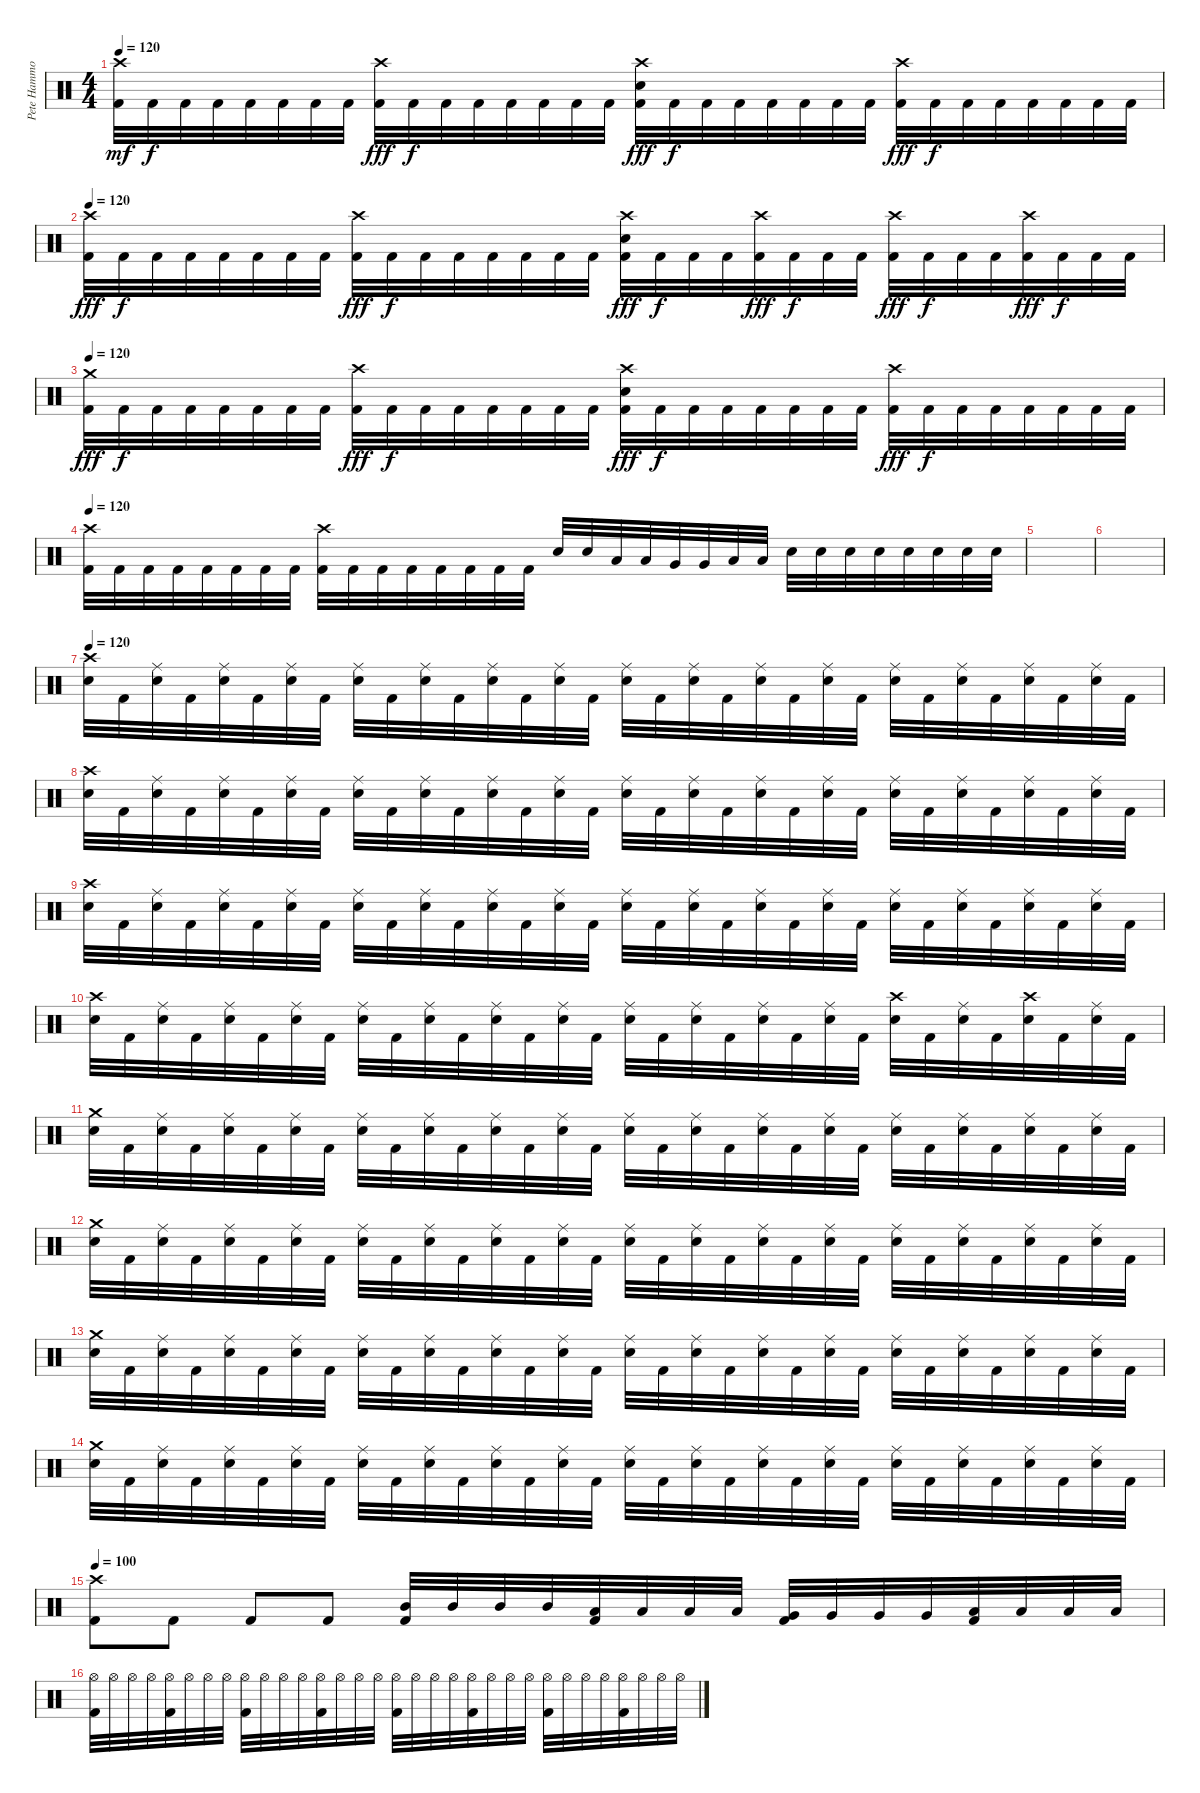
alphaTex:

\track ("Pete Hammoura" "Pete Hammo") {instrument percussion}
\staff {score}
\articulation defaults
\ts (4 4)
\tempo 120
\clef neutral
\ks c
("Crash high (hit)" "Kick (hit) 2").32{dy mf} "Kick (hit) 2".32{dy f} "Kick (hit) 2".32 "Kick (hit) 2".32 "Kick (hit) 2".32 "Kick (hit) 2".32 "Kick (hit) 2".32 "Kick (hit) 2".32 ("Crash high (hit)" "Kick (hit) 2").32{dy fff} "Kick (hit) 2".32{dy f} "Kick (hit) 2".32 "Kick (hit) 2".32 "Kick (hit) 2".32 "Kick (hit) 2".32 "Kick (hit) 2".32 "Kick (hit) 2".32 ("Crash high (hit)" "Electric Snare (hit)" "Kick (hit) 2").32{dy fff} "Kick (hit) 2".32{dy f} "Kick (hit) 2".32 "Kick (hit) 2".32 "Kick (hit) 2".32 "Kick (hit) 2".32 "Kick (hit) 2".32 "Kick (hit) 2".32 ("Crash high (hit)" "Kick (hit) 2").32{dy fff} "Kick (hit) 2".32{dy f} "Kick (hit) 2".32 "Kick (hit) 2".32 "Kick (hit) 2".32 "Kick (hit) 2".32 "Kick (hit) 2".32 "Kick (hit) 2".32 |
\tempo 120
("Crash high (hit)" "Kick (hit) 2").32{dy fff} "Kick (hit) 2".32{dy f} "Kick (hit) 2".32 "Kick (hit) 2".32 "Kick (hit) 2".32 "Kick (hit) 2".32 "Kick (hit) 2".32 "Kick (hit) 2".32 ("Crash high (hit)" "Kick (hit) 2").32{dy fff} "Kick (hit) 2".32{dy f} "Kick (hit) 2".32 "Kick (hit) 2".32 "Kick (hit) 2".32 "Kick (hit) 2".32 "Kick (hit) 2".32 "Kick (hit) 2".32 ("Crash high (hit)" "Electric Snare (hit)" "Kick (hit) 2").32{dy fff} "Kick (hit) 2".32{dy f} "Kick (hit) 2".32 "Kick (hit) 2".32 ("Crash high (hit)" "Kick (hit) 2").32{dy fff} "Kick (hit) 2".32{dy f} "Kick (hit) 2".32 "Kick (hit) 2".32 ("Crash high (hit)" "Kick (hit) 2").32{dy fff} "Kick (hit) 2".32{dy f} "Kick (hit) 2".32 "Kick (hit) 2".32 ("Crash high (hit)" "Kick (hit) 2").32{dy fff} "Kick (hit) 2".32{dy f} "Kick (hit) 2".32 "Kick (hit) 2".32 |
\tempo 120
("Crash medium (hit)" "Kick (hit) 2").32{dy fff} "Kick (hit) 2".32{dy f} "Kick (hit) 2".32 "Kick (hit) 2".32 "Kick (hit) 2".32 "Kick (hit) 2".32 "Kick (hit) 2".32 "Kick (hit) 2".32 ("Crash high (hit)" "Kick (hit) 2").32{dy fff} "Kick (hit) 2".32{dy f} "Kick (hit) 2".32 "Kick (hit) 2".32 "Kick (hit) 2".32 "Kick (hit) 2".32 "Kick (hit) 2".32 "Kick (hit) 2".32 ("Crash high (hit)" "Electric Snare (hit)" "Kick (hit) 2").32{dy fff} "Kick (hit) 2".32{dy f} "Kick (hit) 2".32 "Kick (hit) 2".32 "Kick (hit) 2".32 "Kick (hit) 2".32 "Kick (hit) 2".32 "Kick (hit) 2".32 ("Crash high (hit)" "Kick (hit) 2").32{dy fff} "Kick (hit) 2".32{dy f} "Kick (hit) 2".32 "Kick (hit) 2".32 "Kick (hit) 2".32 "Kick (hit) 2".32 "Kick (hit) 2".32 "Kick (hit) 2".32 |
\tempo 120
("Crash high (hit)" "Kick (hit) 2").32 "Kick (hit) 2".32 "Kick (hit) 2".32 "Kick (hit) 2".32 "Kick (hit) 2".32 "Kick (hit) 2".32 "Kick (hit) 2".32 "Kick (hit) 2".32 ("Crash high (hit)" "Kick (hit) 2").32 "Kick (hit) 2".32 "Kick (hit) 2".32 "Kick (hit) 2".32 "Kick (hit) 2".32 "Kick (hit) 2".32 "Kick (hit) 2".32 "Kick (hit) 2".32 "Electric Snare (hit)".32 "Electric Snare (hit)".32 "Low Tom (hit)".32 "Low Tom (hit)".32 "Very Low Tom (hit)".32 "Very Low Tom (hit)".32 "Low Floor Tom (hit)".32 "Low Floor Tom (hit)".32 "Electric Snare (hit)".32 "Electric Snare (hit)".32 "Electric Snare (hit)".32 "Electric Snare (hit)".32 "Electric Snare (hit)".32 "Electric Snare (hit)".32 "Electric Snare (hit)".32 "Electric Snare (hit)".32 |
|
|
\tempo 120
("Crash high (hit)" "Electric Snare (hit)").32 "Kick (hit) 2".32 ("Ride (middle)" "Electric Snare (hit)").32 "Kick (hit) 2".32 ("Ride (middle)" "Electric Snare (hit)").32 "Kick (hit) 2".32 ("Ride (middle)" "Electric Snare (hit)").32 "Kick (hit) 2".32 ("Ride (middle)" "Electric Snare (hit)").32 "Kick (hit) 2".32 ("Ride (middle)" "Electric Snare (hit)").32 "Kick (hit) 2".32 ("Ride (middle)" "Electric Snare (hit)").32 "Kick (hit) 2".32 ("Ride (middle)" "Electric Snare (hit)").32 "Kick (hit) 2".32 ("Ride (middle)" "Electric Snare (hit)").32 "Kick (hit) 2".32 ("Ride (middle)" "Electric Snare (hit)").32 "Kick (hit) 2".32 ("Ride (middle)" "Electric Snare (hit)").32 "Kick (hit) 2".32 ("Ride (middle)" "Electric Snare (hit)").32 "Kick (hit) 2".32 ("Ride (middle)" "Electric Snare (hit)").32 "Kick (hit) 2".32 ("Ride (middle)" "Electric Snare (hit)").32 "Kick (hit) 2".32 ("Ride (middle)" "Electric Snare (hit)").32 "Kick (hit) 2".32 ("Ride (middle)" "Electric Snare (hit)").32 "Kick (hit) 2".32 |
("Crash high (hit)" "Electric Snare (hit)").32 "Kick (hit) 2".32 ("Ride (middle)" "Electric Snare (hit)").32 "Kick (hit) 2".32 ("Ride (middle)" "Electric Snare (hit)").32 "Kick (hit) 2".32 ("Ride (middle)" "Electric Snare (hit)").32 "Kick (hit) 2".32 ("Ride (middle)" "Electric Snare (hit)").32 "Kick (hit) 2".32 ("Ride (middle)" "Electric Snare (hit)").32 "Kick (hit) 2".32 ("Ride (middle)" "Electric Snare (hit)").32 "Kick (hit) 2".32 ("Ride (middle)" "Electric Snare (hit)").32 "Kick (hit) 2".32 ("Ride (middle)" "Electric Snare (hit)").32 "Kick (hit) 2".32 ("Ride (middle)" "Electric Snare (hit)").32 "Kick (hit) 2".32 ("Ride (middle)" "Electric Snare (hit)").32 "Kick (hit) 2".32 ("Ride (middle)" "Electric Snare (hit)").32 "Kick (hit) 2".32 ("Ride (middle)" "Electric Snare (hit)").32 "Kick (hit) 2".32 ("Ride (middle)" "Electric Snare (hit)").32 "Kick (hit) 2".32 ("Ride (middle)" "Electric Snare (hit)").32 "Kick (hit) 2".32 ("Ride (middle)" "Electric Snare (hit)").32 "Kick (hit) 2".32 |
("Crash high (hit)" "Electric Snare (hit)").32 "Kick (hit) 2".32 ("Ride (middle)" "Electric Snare (hit)").32 "Kick (hit) 2".32 ("Ride (middle)" "Electric Snare (hit)").32 "Kick (hit) 2".32 ("Ride (middle)" "Electric Snare (hit)").32 "Kick (hit) 2".32 ("Ride (middle)" "Electric Snare (hit)").32 "Kick (hit) 2".32 ("Ride (middle)" "Electric Snare (hit)").32 "Kick (hit) 2".32 ("Ride (middle)" "Electric Snare (hit)").32 "Kick (hit) 2".32 ("Ride (middle)" "Electric Snare (hit)").32 "Kick (hit) 2".32 ("Ride (middle)" "Electric Snare (hit)").32 "Kick (hit) 2".32 ("Ride (middle)" "Electric Snare (hit)").32 "Kick (hit) 2".32 ("Ride (middle)" "Electric Snare (hit)").32 "Kick (hit) 2".32 ("Ride (middle)" "Electric Snare (hit)").32 "Kick (hit) 2".32 ("Ride (middle)" "Electric Snare (hit)").32 "Kick (hit) 2".32 ("Ride (middle)" "Electric Snare (hit)").32 "Kick (hit) 2".32 ("Ride (middle)" "Electric Snare (hit)").32 "Kick (hit) 2".32 ("Ride (middle)" "Electric Snare (hit)").32 "Kick (hit) 2".32 |
("Crash high (hit)" "Electric Snare (hit)").32 "Kick (hit) 2".32 ("Ride (middle)" "Electric Snare (hit)").32 "Kick (hit) 2".32 ("Ride (middle)" "Electric Snare (hit)").32 "Kick (hit) 2".32 ("Ride (middle)" "Electric Snare (hit)").32 "Kick (hit) 2".32 ("Ride (middle)" "Electric Snare (hit)").32 "Kick (hit) 2".32 ("Ride (middle)" "Electric Snare (hit)").32 "Kick (hit) 2".32 ("Ride (middle)" "Electric Snare (hit)").32 "Kick (hit) 2".32 ("Ride (middle)" "Electric Snare (hit)").32 "Kick (hit) 2".32 ("Ride (middle)" "Electric Snare (hit)").32 "Kick (hit) 2".32 ("Ride (middle)" "Electric Snare (hit)").32 "Kick (hit) 2".32 ("Ride (middle)" "Electric Snare (hit)").32 "Kick (hit) 2".32 ("Ride (middle)" "Electric Snare (hit)").32 "Kick (hit) 2".32 ("Crash high (hit)" "Electric Snare (hit)").32 "Kick (hit) 2".32 ("Ride (middle)" "Electric Snare (hit)").32 "Kick (hit) 2".32 ("Crash high (hit)" "Electric Snare (hit)").32 "Kick (hit) 2".32 ("Ride (middle)" "Electric Snare (hit)").32 "Kick (hit) 2".32 |
("Crash medium (hit)" "Electric Snare (hit)").32 "Kick (hit) 2".32 ("Ride (middle)" "Electric Snare (hit)").32 "Kick (hit) 2".32 ("Ride (middle)" "Electric Snare (hit)").32 "Kick (hit) 2".32 ("Ride (middle)" "Electric Snare (hit)").32 "Kick (hit) 2".32 ("Ride (middle)" "Electric Snare (hit)").32 "Kick (hit) 2".32 ("Ride (middle)" "Electric Snare (hit)").32 "Kick (hit) 2".32 ("Ride (middle)" "Electric Snare (hit)").32 "Kick (hit) 2".32 ("Ride (middle)" "Electric Snare (hit)").32 "Kick (hit) 2".32 ("Ride (middle)" "Electric Snare (hit)").32 "Kick (hit) 2".32 ("Ride (middle)" "Electric Snare (hit)").32 "Kick (hit) 2".32 ("Ride (middle)" "Electric Snare (hit)").32 "Kick (hit) 2".32 ("Ride (middle)" "Electric Snare (hit)").32 "Kick (hit) 2".32 ("Ride (middle)" "Electric Snare (hit)").32 "Kick (hit) 2".32 ("Ride (middle)" "Electric Snare (hit)").32 "Kick (hit) 2".32 ("Ride (middle)" "Electric Snare (hit)").32 "Kick (hit) 2".32 ("Ride (middle)" "Electric Snare (hit)").32 "Kick (hit) 2".32 |
("Crash medium (hit)" "Electric Snare (hit)").32 "Kick (hit) 2".32 ("Ride (middle)" "Electric Snare (hit)").32 "Kick (hit) 2".32 ("Ride (middle)" "Electric Snare (hit)").32 "Kick (hit) 2".32 ("Ride (middle)" "Electric Snare (hit)").32 "Kick (hit) 2".32 ("Ride (middle)" "Electric Snare (hit)").32 "Kick (hit) 2".32 ("Ride (middle)" "Electric Snare (hit)").32 "Kick (hit) 2".32 ("Ride (middle)" "Electric Snare (hit)").32 "Kick (hit) 2".32 ("Ride (middle)" "Electric Snare (hit)").32 "Kick (hit) 2".32 ("Ride (middle)" "Electric Snare (hit)").32 "Kick (hit) 2".32 ("Ride (middle)" "Electric Snare (hit)").32 "Kick (hit) 2".32 ("Ride (middle)" "Electric Snare (hit)").32 "Kick (hit) 2".32 ("Ride (middle)" "Electric Snare (hit)").32 "Kick (hit) 2".32 ("Ride (middle)" "Electric Snare (hit)").32 "Kick (hit) 2".32 ("Ride (middle)" "Electric Snare (hit)").32 "Kick (hit) 2".32 ("Ride (middle)" "Electric Snare (hit)").32 "Kick (hit) 2".32 ("Ride (middle)" "Electric Snare (hit)").32 "Kick (hit) 2".32 |
("Crash medium (hit)" "Electric Snare (hit)").32 "Kick (hit) 2".32 ("Ride (middle)" "Electric Snare (hit)").32 "Kick (hit) 2".32 ("Ride (middle)" "Electric Snare (hit)").32 "Kick (hit) 2".32 ("Ride (middle)" "Electric Snare (hit)").32 "Kick (hit) 2".32 ("Ride (middle)" "Electric Snare (hit)").32 "Kick (hit) 2".32 ("Ride (middle)" "Electric Snare (hit)").32 "Kick (hit) 2".32 ("Ride (middle)" "Electric Snare (hit)").32 "Kick (hit) 2".32 ("Ride (middle)" "Electric Snare (hit)").32 "Kick (hit) 2".32 ("Ride (middle)" "Electric Snare (hit)").32 "Kick (hit) 2".32 ("Ride (middle)" "Electric Snare (hit)").32 "Kick (hit) 2".32 ("Ride (middle)" "Electric Snare (hit)").32 "Kick (hit) 2".32 ("Ride (middle)" "Electric Snare (hit)").32 "Kick (hit) 2".32 ("Ride (middle)" "Electric Snare (hit)").32 "Kick (hit) 2".32 ("Ride (middle)" "Electric Snare (hit)").32 "Kick (hit) 2".32 ("Ride (middle)" "Electric Snare (hit)").32 "Kick (hit) 2".32 ("Ride (middle)" "Electric Snare (hit)").32 "Kick (hit) 2".32 |
("Crash medium (hit)" "Electric Snare (hit)").32 "Kick (hit) 2".32 ("Ride (middle)" "Electric Snare (hit)").32 "Kick (hit) 2".32 ("Ride (middle)" "Electric Snare (hit)").32 "Kick (hit) 2".32 ("Ride (middle)" "Electric Snare (hit)").32 "Kick (hit) 2".32 ("Ride (middle)" "Electric Snare (hit)").32 "Kick (hit) 2".32 ("Ride (middle)" "Electric Snare (hit)").32 "Kick (hit) 2".32 ("Ride (middle)" "Electric Snare (hit)").32 "Kick (hit) 2".32 ("Ride (middle)" "Electric Snare (hit)").32 "Kick (hit) 2".32 ("Ride (middle)" "Electric Snare (hit)").32 "Kick (hit) 2".32 ("Ride (middle)" "Electric Snare (hit)").32 "Kick (hit) 2".32 ("Ride (middle)" "Electric Snare (hit)").32 "Kick (hit) 2".32 ("Ride (middle)" "Electric Snare (hit)").32 "Kick (hit) 2".32 ("Ride (middle)" "Electric Snare (hit)").32 "Kick (hit) 2".32 ("Ride (middle)" "Electric Snare (hit)").32 "Kick (hit) 2".32 ("Ride (middle)" "Electric Snare (hit)").32 "Kick (hit) 2".32 ("Ride (middle)" "Electric Snare (hit)").32 "Kick (hit) 2".32 |
\tempo 100
("Crash high (hit)" "Kick (hit) 2").8 "Kick (hit) 2".8 "Kick (hit) 2".8 "Kick (hit) 2".8 ("Mid Tom (hit)" "Kick (hit) 2").32 "Mid Tom (hit)".32 "Mid Tom (hit)".32 "Mid Tom (hit)".32 ("Low Tom (hit)" "Kick (hit) 2").32 "Low Tom (hit)".32 "Low Tom (hit)".32 "Low Tom (hit)".32 ("Very Low Tom (hit)" "Kick (hit) 2").32 "Very Low Tom (hit)".32 "Very Low Tom (hit)".32 "Very Low Tom (hit)".32 ("Low Floor Tom (hit)" "Kick (hit) 2").32 "Low Floor Tom (hit)".32 "Low Floor Tom (hit)".32 "Low Floor Tom (hit)".32 |
("Hi-Hat (open)" "Kick (hit) 2").32{volume 13} "Hi-Hat (open)".32 "Hi-Hat (open)".32 "Hi-Hat (open)".32 ("Hi-Hat (open)" "Kick (hit) 2").32 "Hi-Hat (open)".32 "Hi-Hat (open)".32 "Hi-Hat (open)".32 ("Hi-Hat (open)" "Kick (hit) 2").32 "Hi-Hat (open)".32 "Hi-Hat (open)".32 "Hi-Hat (open)".32 ("Hi-Hat (open)" "Kick (hit) 2").32 "Hi-Hat (open)".32 "Hi-Hat (open)".32 "Hi-Hat (open)".32 ("Hi-Hat (open)" "Kick (hit) 2").32 "Hi-Hat (open)".32 "Hi-Hat (open)".32 "Hi-Hat (open)".32 ("Hi-Hat (open)" "Kick (hit) 2").32 "Hi-Hat (open)".32 "Hi-Hat (open)".32 "Hi-Hat (open)".32 ("Hi-Hat (open)" "Kick (hit) 2").32 "Hi-Hat (open)".32 "Hi-Hat (open)".32 "Hi-Hat (open)".32 ("Hi-Hat (open)" "Kick (hit) 2").32 "Hi-Hat (open)".32 "Hi-Hat (open)".32 "Hi-Hat (open)".32
